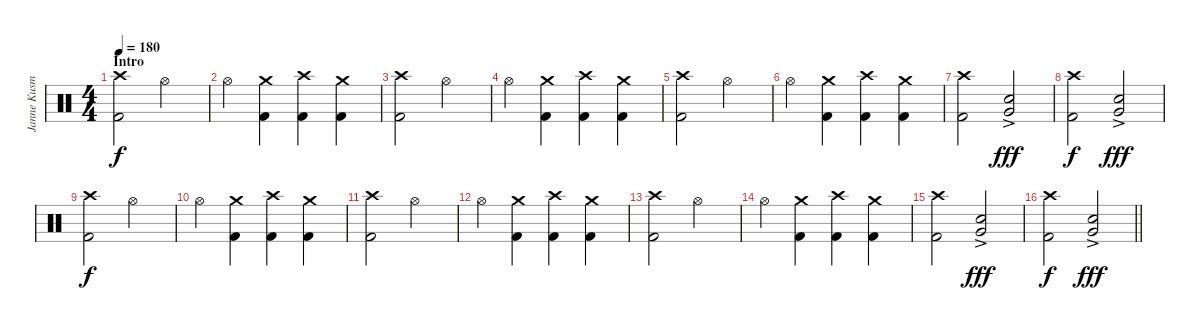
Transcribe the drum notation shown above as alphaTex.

\track ("Janne Kusmin - Drums" "Janne Kusm") {instrument percussion}
\staff {score}
\articulation defaults
\ts (4 4)
\section ("" "Intro")
\tempo 180
\clef neutral
\ks c
("Crash high (hit)" "Kick (hit) 2").2{dy f} "Hi-Hat (open)".2 |
"Hi-Hat (open)".4 ("Crash medium (hit)" "Kick (hit) 2").4 ("Crash high (hit)" "Kick (hit) 2").4 ("Crash medium (hit)" "Kick (hit) 2").4 |
("Crash high (hit)" "Kick (hit) 2").2 "Hi-Hat (open)".2 |
"Hi-Hat (open)".4 ("Crash medium (hit)" "Kick (hit) 2").4 ("Crash high (hit)" "Kick (hit) 2").4 ("Crash medium (hit)" "Kick (hit) 2").4 |
("Crash high (hit)" "Kick (hit) 2").2 "Hi-Hat (open)".2 |
"Hi-Hat (open)".4 ("Crash medium (hit)" "Kick (hit) 2").4 ("Crash high (hit)" "Kick (hit) 2").4 ("Crash medium (hit)" "Kick (hit) 2").4 |
("Crash high (hit)" "Kick (hit) 2").2 ("Very Low Tom (hit)"{ac} "Electric Snare (hit)").2{dy fff} |
("Crash high (hit)" "Kick (hit) 2").2{dy f} ("Very Low Tom (hit)"{ac} "Electric Snare (hit)").2{dy fff} |
("Crash high (hit)" "Kick (hit) 2").2{dy f} "Hi-Hat (open)".2 |
"Hi-Hat (open)".4 ("Crash medium (hit)" "Kick (hit) 2").4 ("Crash high (hit)" "Kick (hit) 2").4 ("Crash medium (hit)" "Kick (hit) 2").4 |
("Crash high (hit)" "Kick (hit) 2").2 "Hi-Hat (open)".2 |
"Hi-Hat (open)".4 ("Crash medium (hit)" "Kick (hit) 2").4 ("Crash high (hit)" "Kick (hit) 2").4 ("Crash medium (hit)" "Kick (hit) 2").4 |
("Crash high (hit)" "Kick (hit) 2").2 "Hi-Hat (open)".2 |
"Hi-Hat (open)".4 ("Crash medium (hit)" "Kick (hit) 2").4 ("Crash high (hit)" "Kick (hit) 2").4 ("Crash medium (hit)" "Kick (hit) 2").4 |
("Crash high (hit)" "Kick (hit) 2").2 ("Very Low Tom (hit)"{ac} "Electric Snare (hit)").2{dy fff} |
\barLineRight lightlight
("Crash high (hit)" "Kick (hit) 2").2{dy f} ("Very Low Tom (hit)"{ac} "Electric Snare (hit)").2{dy fff}
